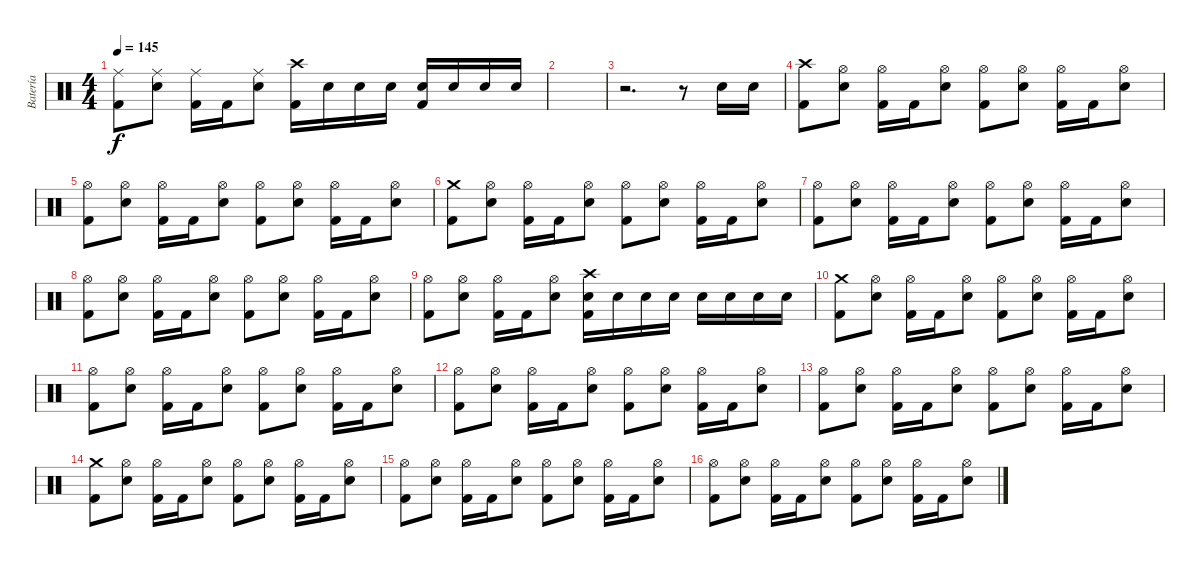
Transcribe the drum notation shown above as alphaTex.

\track ("Batería" "Batería") {instrument percussion}
\staff {score}
\articulation defaults
\ts (4 4)
\tempo 145
\clef neutral
\ks c
("Kick (hit) 2" "Ride (middle)").8{dy f} ("Electric Snare (hit)" "Ride (middle)").8 ("Kick (hit) 2" "Ride (middle)").16 "Kick (hit) 2".16 ("Electric Snare (hit)" "Ride (middle)").8 ("Kick (hit) 2" "Crash high (hit)").16 "Electric Snare (hit)".16 "Electric Snare (hit)".16 "Electric Snare (hit)".16 ("Kick (hit) 2" "Electric Snare (hit)").16 "Electric Snare (hit)".16 "Electric Snare (hit)".16 "Electric Snare (hit)".16 |
|
r.2{d} r.8 "Electric Snare (hit)".16 "Electric Snare (hit)".16 |
("Kick (hit) 2" "Crash high (hit)").8 ("Electric Snare (hit)" "Hi-Hat (open)").8 ("Kick (hit) 2" "Hi-Hat (open)").16 "Kick (hit) 2".16 ("Electric Snare (hit)" "Hi-Hat (open)").8 ("Kick (hit) 2" "Hi-Hat (open)").8 ("Electric Snare (hit)" "Hi-Hat (open)").8 ("Kick (hit) 2" "Hi-Hat (open)").16 "Kick (hit) 2".16 ("Electric Snare (hit)" "Hi-Hat (open)").8 |
("Kick (hit) 2" "Hi-Hat (open)").8 ("Electric Snare (hit)" "Hi-Hat (open)").8 ("Kick (hit) 2" "Hi-Hat (open)").16 "Kick (hit) 2".16 ("Electric Snare (hit)" "Hi-Hat (open)").8 ("Kick (hit) 2" "Hi-Hat (open)").8 ("Electric Snare (hit)" "Hi-Hat (open)").8 ("Kick (hit) 2" "Hi-Hat (open)").16 "Kick (hit) 2".16 ("Electric Snare (hit)" "Hi-Hat (open)").8 |
("Kick (hit) 2" "Crash medium (hit)").8 ("Electric Snare (hit)" "Hi-Hat (open)").8 ("Kick (hit) 2" "Hi-Hat (open)").16 "Kick (hit) 2".16 ("Electric Snare (hit)" "Hi-Hat (open)").8 ("Kick (hit) 2" "Hi-Hat (open)").8 ("Electric Snare (hit)" "Hi-Hat (open)").8 ("Kick (hit) 2" "Hi-Hat (open)").16 "Kick (hit) 2".16 ("Electric Snare (hit)" "Hi-Hat (open)").8 |
("Kick (hit) 2" "Hi-Hat (open)").8 ("Electric Snare (hit)" "Hi-Hat (open)").8 ("Kick (hit) 2" "Hi-Hat (open)").16 "Kick (hit) 2".16 ("Electric Snare (hit)" "Hi-Hat (open)").8 ("Kick (hit) 2" "Hi-Hat (open)").8 ("Electric Snare (hit)" "Hi-Hat (open)").8 ("Kick (hit) 2" "Hi-Hat (open)").16 "Kick (hit) 2".16 ("Electric Snare (hit)" "Hi-Hat (open)").8 |
("Kick (hit) 2" "Hi-Hat (open)").8 ("Electric Snare (hit)" "Hi-Hat (open)").8 ("Kick (hit) 2" "Hi-Hat (open)").16 "Kick (hit) 2".16 ("Electric Snare (hit)" "Hi-Hat (open)").8 ("Kick (hit) 2" "Hi-Hat (open)").8 ("Electric Snare (hit)" "Hi-Hat (open)").8 ("Kick (hit) 2" "Hi-Hat (open)").16 "Kick (hit) 2".16 ("Electric Snare (hit)" "Hi-Hat (open)").8 |
("Kick (hit) 2" "Hi-Hat (open)").8 ("Electric Snare (hit)" "Hi-Hat (open)").8 ("Kick (hit) 2" "Hi-Hat (open)").16 "Kick (hit) 2".16 ("Electric Snare (hit)" "Hi-Hat (open)").8 ("Kick (hit) 2" "Electric Snare (hit)" "Crash high (hit)").16 "Electric Snare (hit)".16 "Electric Snare (hit)".16 "Electric Snare (hit)".16 "Electric Snare (hit)".16 "Electric Snare (hit)".16 "Electric Snare (hit)".16 "Electric Snare (hit)".16 |
("Kick (hit) 2" "Crash medium (hit)").8 ("Electric Snare (hit)" "Hi-Hat (open)").8 ("Kick (hit) 2" "Hi-Hat (open)").16 "Kick (hit) 2".16 ("Electric Snare (hit)" "Hi-Hat (open)").8 ("Kick (hit) 2" "Hi-Hat (open)").8 ("Electric Snare (hit)" "Hi-Hat (open)").8 ("Kick (hit) 2" "Hi-Hat (open)").16 "Kick (hit) 2".16 ("Electric Snare (hit)" "Hi-Hat (open)").8 |
("Kick (hit) 2" "Hi-Hat (open)").8 ("Electric Snare (hit)" "Hi-Hat (open)").8 ("Kick (hit) 2" "Hi-Hat (open)").16 "Kick (hit) 2".16 ("Electric Snare (hit)" "Hi-Hat (open)").8 ("Kick (hit) 2" "Hi-Hat (open)").8 ("Electric Snare (hit)" "Hi-Hat (open)").8 ("Kick (hit) 2" "Hi-Hat (open)").16 "Kick (hit) 2".16 ("Electric Snare (hit)" "Hi-Hat (open)").8 |
("Kick (hit) 2" "Hi-Hat (open)").8 ("Electric Snare (hit)" "Hi-Hat (open)").8 ("Kick (hit) 2" "Hi-Hat (open)").16 "Kick (hit) 2".16 ("Electric Snare (hit)" "Hi-Hat (open)").8 ("Kick (hit) 2" "Hi-Hat (open)").8 ("Electric Snare (hit)" "Hi-Hat (open)").8 ("Kick (hit) 2" "Hi-Hat (open)").16 "Kick (hit) 2".16 ("Electric Snare (hit)" "Hi-Hat (open)").8 |
("Kick (hit) 2" "Hi-Hat (open)").8 ("Electric Snare (hit)" "Hi-Hat (open)").8 ("Kick (hit) 2" "Hi-Hat (open)").16 "Kick (hit) 2".16 ("Electric Snare (hit)" "Hi-Hat (open)").8 ("Kick (hit) 2" "Hi-Hat (open)").8 ("Electric Snare (hit)" "Hi-Hat (open)").8 ("Kick (hit) 2" "Hi-Hat (open)").16 "Kick (hit) 2".16 ("Electric Snare (hit)" "Hi-Hat (open)").8 |
("Kick (hit) 2" "Crash medium (hit)").8 ("Electric Snare (hit)" "Hi-Hat (open)").8 ("Kick (hit) 2" "Hi-Hat (open)").16 "Kick (hit) 2".16 ("Electric Snare (hit)" "Hi-Hat (open)").8 ("Kick (hit) 2" "Hi-Hat (open)").8 ("Electric Snare (hit)" "Hi-Hat (open)").8 ("Kick (hit) 2" "Hi-Hat (open)").16 "Kick (hit) 2".16 ("Electric Snare (hit)" "Hi-Hat (open)").8 |
("Kick (hit) 2" "Hi-Hat (open)").8 ("Electric Snare (hit)" "Hi-Hat (open)").8 ("Kick (hit) 2" "Hi-Hat (open)").16 "Kick (hit) 2".16 ("Electric Snare (hit)" "Hi-Hat (open)").8 ("Kick (hit) 2" "Hi-Hat (open)").8 ("Electric Snare (hit)" "Hi-Hat (open)").8 ("Kick (hit) 2" "Hi-Hat (open)").16 "Kick (hit) 2".16 ("Electric Snare (hit)" "Hi-Hat (open)").8 |
("Kick (hit) 2" "Hi-Hat (open)").8 ("Electric Snare (hit)" "Hi-Hat (open)").8 ("Kick (hit) 2" "Hi-Hat (open)").16 "Kick (hit) 2".16 ("Electric Snare (hit)" "Hi-Hat (open)").8 ("Kick (hit) 2" "Hi-Hat (open)").8 ("Electric Snare (hit)" "Hi-Hat (open)").8 ("Kick (hit) 2" "Hi-Hat (open)").16 "Kick (hit) 2".16 ("Electric Snare (hit)" "Hi-Hat (open)").8
